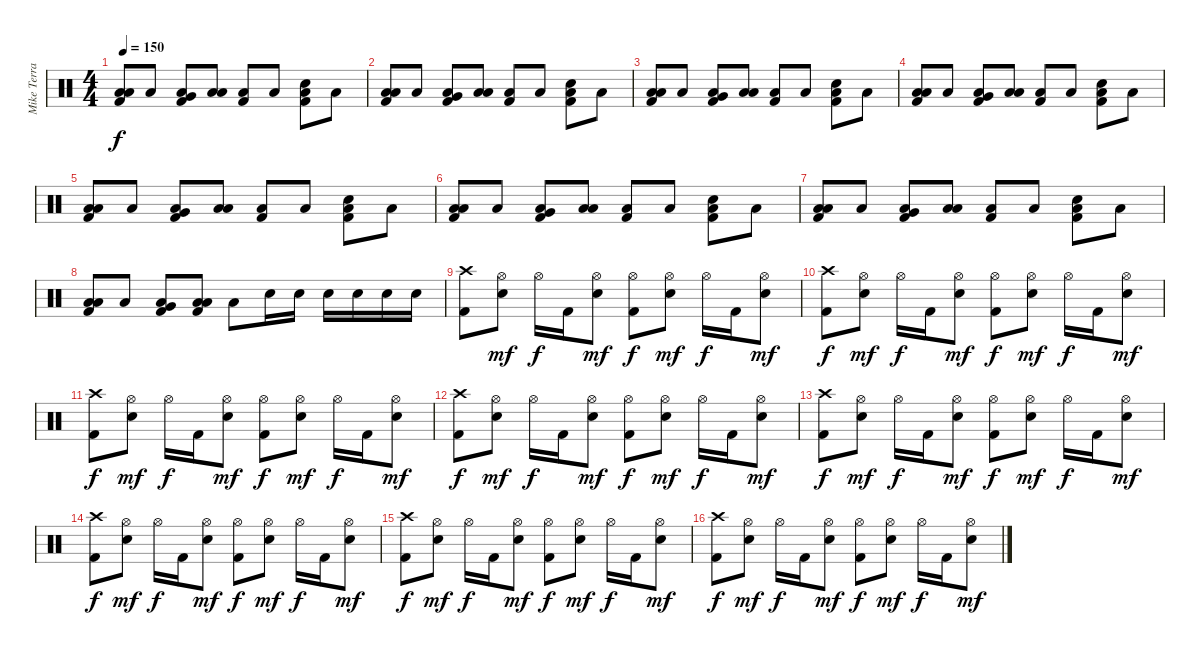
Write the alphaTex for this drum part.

\track ("Mike Terrana" "Mike Terra") {instrument percussion}
\staff {score}
\articulation defaults
\ts (4 4)
\tempo 150
\clef neutral
\ks c
("Low Tom (hit)" "Low Floor Tom (hit)" "Kick (hit) 2").8{dy f} "Low Floor Tom (hit)".8 ("Very Low Tom (hit)" "Low Floor Tom (hit)" "Kick (hit) 2").8 ("Low Tom (hit)" "Low Floor Tom (hit)").8 ("Low Floor Tom (hit)" "Kick (hit) 2").8 "Low Floor Tom (hit)".8 ("Electric Snare (hit)" "Low Floor Tom (hit)" "Kick (hit) 2").8 "Low Floor Tom (hit)".8 |
("Low Tom (hit)" "Low Floor Tom (hit)" "Kick (hit) 2").8 "Low Floor Tom (hit)".8 ("Very Low Tom (hit)" "Low Floor Tom (hit)" "Kick (hit) 2").8 ("Low Tom (hit)" "Low Floor Tom (hit)").8 ("Low Floor Tom (hit)" "Kick (hit) 2").8 "Low Floor Tom (hit)".8 ("Electric Snare (hit)" "Low Floor Tom (hit)" "Kick (hit) 2").8 "Low Floor Tom (hit)".8 |
("Low Tom (hit)" "Low Floor Tom (hit)" "Kick (hit) 2").8 "Low Floor Tom (hit)".8 ("Very Low Tom (hit)" "Low Floor Tom (hit)" "Kick (hit) 2").8 ("Low Tom (hit)" "Low Floor Tom (hit)").8 ("Low Floor Tom (hit)" "Kick (hit) 2").8 "Low Floor Tom (hit)".8 ("Electric Snare (hit)" "Low Floor Tom (hit)" "Kick (hit) 2").8 "Low Floor Tom (hit)".8 |
("Low Tom (hit)" "Low Floor Tom (hit)" "Kick (hit) 2").8 "Low Floor Tom (hit)".8 ("Very Low Tom (hit)" "Low Floor Tom (hit)" "Kick (hit) 2").8 ("Low Tom (hit)" "Low Floor Tom (hit)").8 ("Low Floor Tom (hit)" "Kick (hit) 2").8 "Low Floor Tom (hit)".8 ("Electric Snare (hit)" "Low Floor Tom (hit)" "Kick (hit) 2").8 "Low Floor Tom (hit)".8 |
("Low Tom (hit)" "Low Floor Tom (hit)" "Kick (hit) 2").8 "Low Floor Tom (hit)".8 ("Very Low Tom (hit)" "Low Floor Tom (hit)" "Kick (hit) 2").8 ("Low Tom (hit)" "Low Floor Tom (hit)").8 ("Low Floor Tom (hit)" "Kick (hit) 2").8 "Low Floor Tom (hit)".8 ("Electric Snare (hit)" "Low Floor Tom (hit)" "Kick (hit) 2").8 "Low Floor Tom (hit)".8 |
("Low Tom (hit)" "Low Floor Tom (hit)" "Kick (hit) 2").8 "Low Floor Tom (hit)".8 ("Very Low Tom (hit)" "Low Floor Tom (hit)" "Kick (hit) 2").8 ("Low Tom (hit)" "Low Floor Tom (hit)").8 ("Low Floor Tom (hit)" "Kick (hit) 2").8 "Low Floor Tom (hit)".8 ("Electric Snare (hit)" "Low Floor Tom (hit)" "Kick (hit) 2").8 "Low Floor Tom (hit)".8 |
("Low Tom (hit)" "Low Floor Tom (hit)" "Kick (hit) 2").8 "Low Floor Tom (hit)".8 ("Very Low Tom (hit)" "Low Floor Tom (hit)" "Kick (hit) 2").8 ("Low Tom (hit)" "Low Floor Tom (hit)").8 ("Low Floor Tom (hit)" "Kick (hit) 2").8 "Low Floor Tom (hit)".8 ("Electric Snare (hit)" "Low Floor Tom (hit)" "Kick (hit) 2").8 "Low Floor Tom (hit)".8 |
("Low Tom (hit)" "Low Floor Tom (hit)" "Kick (hit) 2").8 "Low Floor Tom (hit)".8 ("Very Low Tom (hit)" "Low Floor Tom (hit)" "Kick (hit) 2").8 ("Low Tom (hit)" "Low Floor Tom (hit)" "Kick (hit) 2").8 "Low Floor Tom (hit)".8 "Electric Snare (hit)".16 "Electric Snare (hit)".16 "Electric Snare (hit)".16 "Electric Snare (hit)".16 "Electric Snare (hit)".16 "Electric Snare (hit)".16 |
("Crash high (hit)" "Kick (hit) 2").8 ("Hi-Hat (open)" "Electric Snare (hit)").8{dy mf} "Hi-Hat (open)".16{dy f} "Kick (hit) 2".16 ("Hi-Hat (open)" "Electric Snare (hit)").8{dy mf} ("Hi-Hat (open)" "Kick (hit) 2").8{dy f} ("Hi-Hat (open)" "Electric Snare (hit)").8{dy mf} "Hi-Hat (open)".16{dy f} "Kick (hit) 2".16 ("Hi-Hat (open)" "Electric Snare (hit)").8{dy mf} |
("Crash high (hit)" "Kick (hit) 2").8{dy f} ("Hi-Hat (open)" "Electric Snare (hit)").8{dy mf} "Hi-Hat (open)".16{dy f} "Kick (hit) 2".16 ("Hi-Hat (open)" "Electric Snare (hit)").8{dy mf} ("Hi-Hat (open)" "Kick (hit) 2").8{dy f} ("Hi-Hat (open)" "Electric Snare (hit)").8{dy mf} "Hi-Hat (open)".16{dy f} "Kick (hit) 2".16 ("Hi-Hat (open)" "Electric Snare (hit)").8{dy mf} |
("Crash high (hit)" "Kick (hit) 2").8{dy f} ("Hi-Hat (open)" "Electric Snare (hit)").8{dy mf} "Hi-Hat (open)".16{dy f} "Kick (hit) 2".16 ("Hi-Hat (open)" "Electric Snare (hit)").8{dy mf} ("Hi-Hat (open)" "Kick (hit) 2").8{dy f} ("Hi-Hat (open)" "Electric Snare (hit)").8{dy mf} "Hi-Hat (open)".16{dy f} "Kick (hit) 2".16 ("Hi-Hat (open)" "Electric Snare (hit)").8{dy mf} |
("Crash high (hit)" "Kick (hit) 2").8{dy f} ("Hi-Hat (open)" "Electric Snare (hit)").8{dy mf} "Hi-Hat (open)".16{dy f} "Kick (hit) 2".16 ("Hi-Hat (open)" "Electric Snare (hit)").8{dy mf} ("Hi-Hat (open)" "Kick (hit) 2").8{dy f} ("Hi-Hat (open)" "Electric Snare (hit)").8{dy mf} "Hi-Hat (open)".16{dy f} "Kick (hit) 2".16 ("Hi-Hat (open)" "Electric Snare (hit)").8{dy mf} |
("Crash high (hit)" "Kick (hit) 2").8{dy f} ("Hi-Hat (open)" "Electric Snare (hit)").8{dy mf} "Hi-Hat (open)".16{dy f} "Kick (hit) 2".16 ("Hi-Hat (open)" "Electric Snare (hit)").8{dy mf} ("Hi-Hat (open)" "Kick (hit) 2").8{dy f} ("Hi-Hat (open)" "Electric Snare (hit)").8{dy mf} "Hi-Hat (open)".16{dy f} "Kick (hit) 2".16 ("Hi-Hat (open)" "Electric Snare (hit)").8{dy mf} |
("Crash high (hit)" "Kick (hit) 2").8{dy f} ("Hi-Hat (open)" "Electric Snare (hit)").8{dy mf} "Hi-Hat (open)".16{dy f} "Kick (hit) 2".16 ("Hi-Hat (open)" "Electric Snare (hit)").8{dy mf} ("Hi-Hat (open)" "Kick (hit) 2").8{dy f} ("Hi-Hat (open)" "Electric Snare (hit)").8{dy mf} "Hi-Hat (open)".16{dy f} "Kick (hit) 2".16 ("Hi-Hat (open)" "Electric Snare (hit)").8{dy mf} |
("Crash high (hit)" "Kick (hit) 2").8{dy f} ("Hi-Hat (open)" "Electric Snare (hit)").8{dy mf} "Hi-Hat (open)".16{dy f} "Kick (hit) 2".16 ("Hi-Hat (open)" "Electric Snare (hit)").8{dy mf} ("Hi-Hat (open)" "Kick (hit) 2").8{dy f} ("Hi-Hat (open)" "Electric Snare (hit)").8{dy mf} "Hi-Hat (open)".16{dy f} "Kick (hit) 2".16 ("Hi-Hat (open)" "Electric Snare (hit)").8{dy mf} |
("Crash high (hit)" "Kick (hit) 2").8{dy f} ("Hi-Hat (open)" "Electric Snare (hit)").8{dy mf} "Hi-Hat (open)".16{dy f} "Kick (hit) 2".16 ("Hi-Hat (open)" "Electric Snare (hit)").8{dy mf} ("Hi-Hat (open)" "Kick (hit) 2").8{dy f} ("Hi-Hat (open)" "Electric Snare (hit)").8{dy mf} "Hi-Hat (open)".16{dy f} "Kick (hit) 2".16 ("Hi-Hat (open)" "Electric Snare (hit)").8{dy mf}
